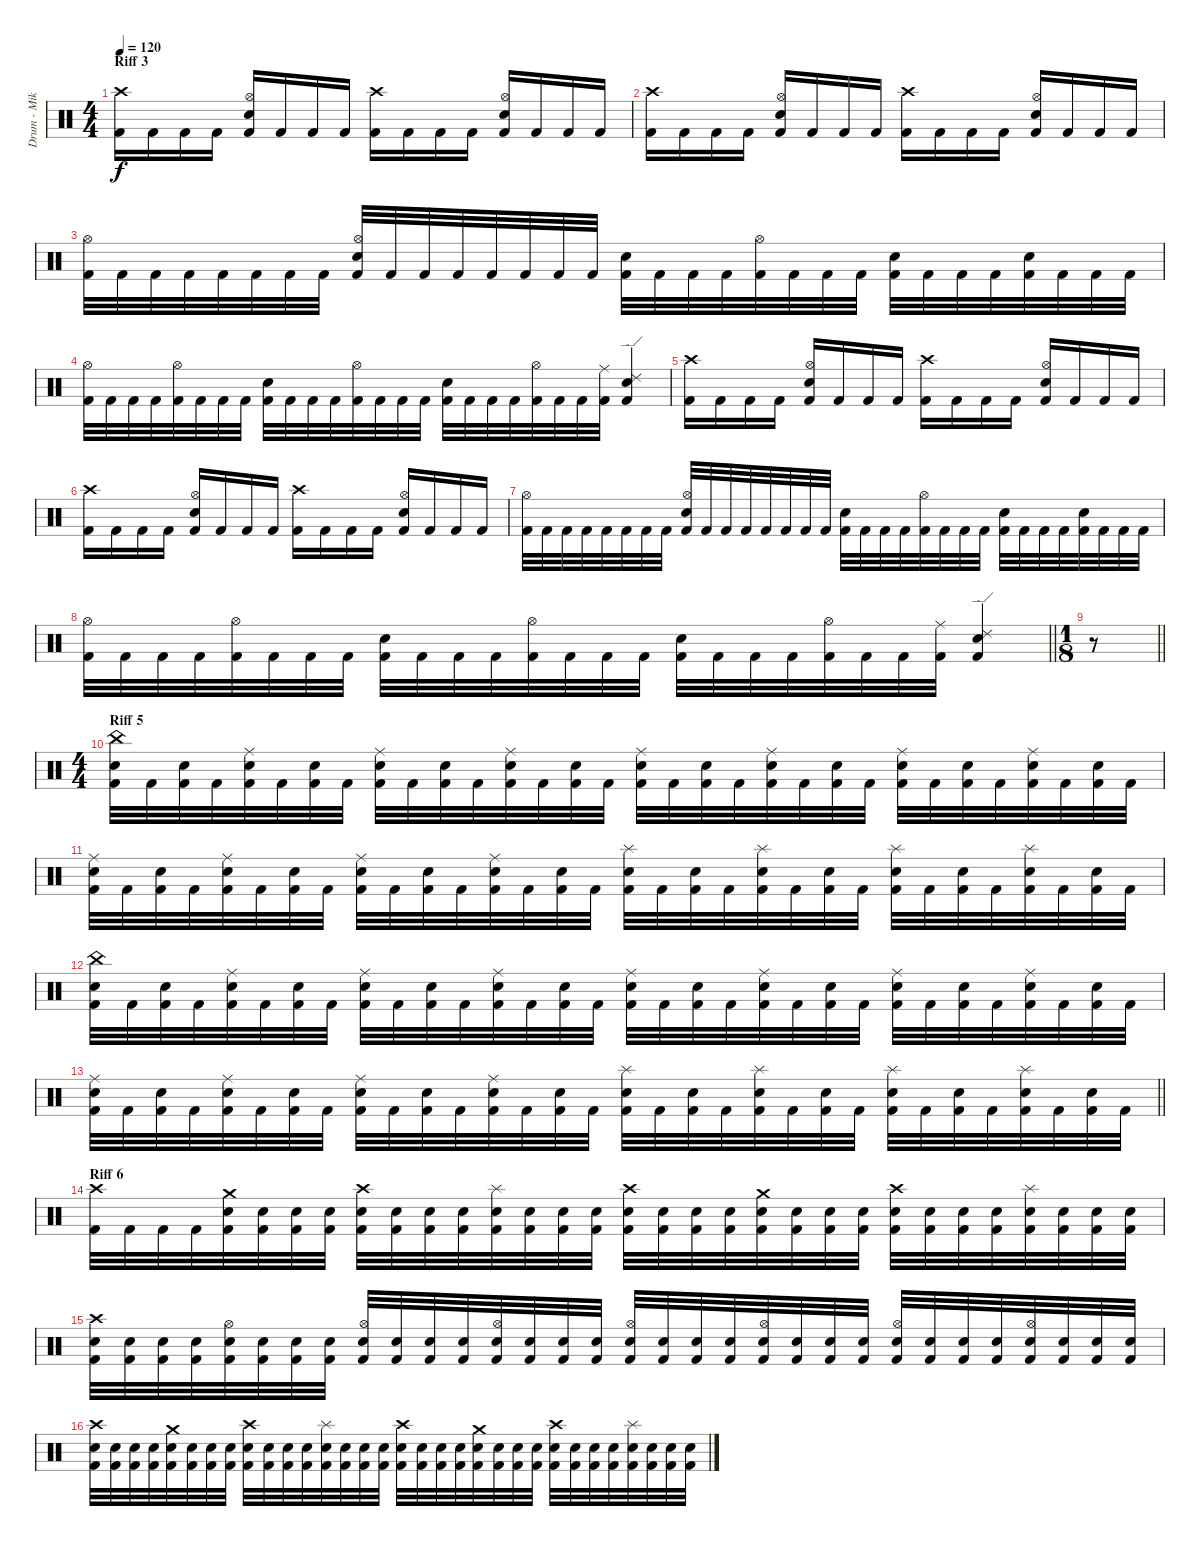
\track ("Drum - Mike Collins" "Drum - Mik") {instrument percussion}
\staff {score}
\articulation defaults
\ts (4 4)
\section ("" "Riff 3")
\tempo 120
\clef neutral
\ks c
("Crash high (hit)" "Kick (hit) 2").16{dy f} "Kick (hit) 2".16 "Kick (hit) 2".16 "Kick (hit) 2".16 ("Hi-Hat (open)" "Electric Snare (hit)" "Kick (hit) 2").16 "Kick (hit) 2".16 "Kick (hit) 2".16 "Kick (hit) 2".16 ("Crash high (hit)" "Kick (hit) 2").16 "Kick (hit) 2".16 "Kick (hit) 2".16 "Kick (hit) 2".16 ("Hi-Hat (open)" "Electric Snare (hit)" "Kick (hit) 2").16 "Kick (hit) 2".16 "Kick (hit) 2".16 "Kick (hit) 2".16 |
("Crash high (hit)" "Kick (hit) 2").16 "Kick (hit) 2".16 "Kick (hit) 2".16 "Kick (hit) 2".16 ("Hi-Hat (open)" "Electric Snare (hit)" "Kick (hit) 2").16 "Kick (hit) 2".16 "Kick (hit) 2".16 "Kick (hit) 2".16 ("Crash high (hit)" "Kick (hit) 2").16 "Kick (hit) 2".16 "Kick (hit) 2".16 "Kick (hit) 2".16 ("Hi-Hat (open)" "Electric Snare (hit)" "Kick (hit) 2").16 "Kick (hit) 2".16 "Kick (hit) 2".16 "Kick (hit) 2".16 |
("Hi-Hat (open)" "Kick (hit) 2").32 "Kick (hit) 2".32 "Kick (hit) 2".32 "Kick (hit) 2".32 "Kick (hit) 2".32 "Kick (hit) 2".32 "Kick (hit) 2".32 "Kick (hit) 2".32 ("Hi-Hat (open)" "Electric Snare (hit)" "Kick (hit) 2").32 "Kick (hit) 2".32 "Kick (hit) 2".32 "Kick (hit) 2".32 "Kick (hit) 2".32 "Kick (hit) 2".32 "Kick (hit) 2".32 "Kick (hit) 2".32 ("Electric Snare (hit)" "Kick (hit) 2").32 "Kick (hit) 2".32 "Kick (hit) 2".32 "Kick (hit) 2".32 ("Hi-Hat (open)" "Kick (hit) 2").32 "Kick (hit) 2".32 "Kick (hit) 2".32 "Kick (hit) 2".32 ("Electric Snare (hit)" "Kick (hit) 2").32{beam Down} "Kick (hit) 2".32{beam Down} "Kick (hit) 2".32{beam Down} "Kick (hit) 2".32{beam Down} ("Electric Snare (hit)" "Kick (hit) 2").32{beam Down} "Kick (hit) 2".32{beam Down} "Kick (hit) 2".32{beam Down} "Kick (hit) 2".32{beam Down} |
("Hi-Hat (open)" "Kick (hit) 2").32 "Kick (hit) 2".32 "Kick (hit) 2".32 "Kick (hit) 2".32 ("Hi-Hat (open)" "Kick (hit) 2").32 "Kick (hit) 2".32 "Kick (hit) 2".32 "Kick (hit) 2".32 ("Electric Snare (hit)" "Kick (hit) 2").32 "Kick (hit) 2".32 "Kick (hit) 2".32 "Kick (hit) 2".32 ("Hi-Hat (open)" "Kick (hit) 2").32 "Kick (hit) 2".32 "Kick (hit) 2".32 "Kick (hit) 2".32 ("Electric Snare (hit)" "Kick (hit) 2").32 "Kick (hit) 2".32 "Kick (hit) 2".32 "Kick (hit) 2".32 ("Hi-Hat (open)" "Kick (hit) 2").32 "Kick (hit) 2".32 "Kick (hit) 2".32 ("Ride (middle)" "Kick (hit) 2").32 ("Ride (edge) 2" "Electric Snare (hit)" "Kick (hit) 2").4 |
("Crash high (hit)" "Kick (hit) 2").16 "Kick (hit) 2".16 "Kick (hit) 2".16 "Kick (hit) 2".16 ("Hi-Hat (open)" "Electric Snare (hit)" "Kick (hit) 2").16 "Kick (hit) 2".16 "Kick (hit) 2".16 "Kick (hit) 2".16 ("Crash high (hit)" "Kick (hit) 2").16 "Kick (hit) 2".16 "Kick (hit) 2".16 "Kick (hit) 2".16 ("Hi-Hat (open)" "Electric Snare (hit)" "Kick (hit) 2").16 "Kick (hit) 2".16 "Kick (hit) 2".16 "Kick (hit) 2".16 |
("Crash high (hit)" "Kick (hit) 2").16 "Kick (hit) 2".16 "Kick (hit) 2".16 "Kick (hit) 2".16 ("Hi-Hat (open)" "Electric Snare (hit)" "Kick (hit) 2").16 "Kick (hit) 2".16 "Kick (hit) 2".16 "Kick (hit) 2".16 ("Crash high (hit)" "Kick (hit) 2").16 "Kick (hit) 2".16 "Kick (hit) 2".16 "Kick (hit) 2".16 ("Hi-Hat (open)" "Electric Snare (hit)" "Kick (hit) 2").16 "Kick (hit) 2".16 "Kick (hit) 2".16 "Kick (hit) 2".16 |
("Hi-Hat (open)" "Kick (hit) 2").32 "Kick (hit) 2".32 "Kick (hit) 2".32 "Kick (hit) 2".32 "Kick (hit) 2".32 "Kick (hit) 2".32 "Kick (hit) 2".32 "Kick (hit) 2".32 ("Hi-Hat (open)" "Electric Snare (hit)" "Kick (hit) 2").32 "Kick (hit) 2".32 "Kick (hit) 2".32 "Kick (hit) 2".32 "Kick (hit) 2".32 "Kick (hit) 2".32 "Kick (hit) 2".32 "Kick (hit) 2".32 ("Electric Snare (hit)" "Kick (hit) 2").32 "Kick (hit) 2".32 "Kick (hit) 2".32 "Kick (hit) 2".32 ("Hi-Hat (open)" "Kick (hit) 2").32 "Kick (hit) 2".32 "Kick (hit) 2".32 "Kick (hit) 2".32 ("Electric Snare (hit)" "Kick (hit) 2").32{beam Down} "Kick (hit) 2".32{beam Down} "Kick (hit) 2".32{beam Down} "Kick (hit) 2".32{beam Down} ("Electric Snare (hit)" "Kick (hit) 2").32{beam Down} "Kick (hit) 2".32{beam Down} "Kick (hit) 2".32{beam Down} "Kick (hit) 2".32{beam Down} |
\barLineRight lightlight
("Hi-Hat (open)" "Kick (hit) 2").32 "Kick (hit) 2".32 "Kick (hit) 2".32 "Kick (hit) 2".32 ("Hi-Hat (open)" "Kick (hit) 2").32 "Kick (hit) 2".32 "Kick (hit) 2".32 "Kick (hit) 2".32 ("Electric Snare (hit)" "Kick (hit) 2").32 "Kick (hit) 2".32 "Kick (hit) 2".32 "Kick (hit) 2".32 ("Hi-Hat (open)" "Kick (hit) 2").32 "Kick (hit) 2".32 "Kick (hit) 2".32 "Kick (hit) 2".32 ("Electric Snare (hit)" "Kick (hit) 2").32 "Kick (hit) 2".32 "Kick (hit) 2".32 "Kick (hit) 2".32 ("Hi-Hat (open)" "Kick (hit) 2").32 "Kick (hit) 2".32 "Kick (hit) 2".32 ("Ride (middle)" "Kick (hit) 2").32 ("Ride (edge) 2" "Electric Snare (hit)" "Kick (hit) 2").4 |
\ts (1 8)
\barLineRight lightlight
r.8 |
\ts (4 4)
\section ("" "Riff 5")
("China (hit)" "Electric Snare (hit)" "Kick (hit) 2").32 "Kick (hit) 2".32 ("Electric Snare (hit)" "Kick (hit) 2").32 "Kick (hit) 2".32 ("Ride (middle)" "Electric Snare (hit)" "Kick (hit) 2").32 "Kick (hit) 2".32 ("Electric Snare (hit)" "Kick (hit) 2").32 "Kick (hit) 2".32 ("Ride (middle)" "Electric Snare (hit)" "Kick (hit) 2").32 "Kick (hit) 2".32 ("Electric Snare (hit)" "Kick (hit) 2").32 "Kick (hit) 2".32 ("Ride (middle)" "Electric Snare (hit)" "Kick (hit) 2").32 "Kick (hit) 2".32 ("Electric Snare (hit)" "Kick (hit) 2").32 "Kick (hit) 2".32 ("Ride (middle)" "Electric Snare (hit)" "Kick (hit) 2").32 "Kick (hit) 2".32 ("Electric Snare (hit)" "Kick (hit) 2").32 "Kick (hit) 2".32 ("Ride (middle)" "Electric Snare (hit)" "Kick (hit) 2").32 "Kick (hit) 2".32 ("Electric Snare (hit)" "Kick (hit) 2").32 "Kick (hit) 2".32 ("Ride (middle)" "Electric Snare (hit)" "Kick (hit) 2").32 "Kick (hit) 2".32 ("Electric Snare (hit)" "Kick (hit) 2").32 "Kick (hit) 2".32 ("Ride (middle)" "Electric Snare (hit)" "Kick (hit) 2").32 "Kick (hit) 2".32 ("Electric Snare (hit)" "Kick (hit) 2").32 "Kick (hit) 2".32 |
("Ride (middle)" "Electric Snare (hit)" "Kick (hit) 2").32 "Kick (hit) 2".32 ("Electric Snare (hit)" "Kick (hit) 2").32 "Kick (hit) 2".32 ("Ride (middle)" "Electric Snare (hit)" "Kick (hit) 2").32 "Kick (hit) 2".32 ("Electric Snare (hit)" "Kick (hit) 2").32 "Kick (hit) 2".32 ("Ride (middle)" "Electric Snare (hit)" "Kick (hit) 2").32 "Kick (hit) 2".32 ("Electric Snare (hit)" "Kick (hit) 2").32 "Kick (hit) 2".32 ("Ride (middle)" "Electric Snare (hit)" "Kick (hit) 2").32 "Kick (hit) 2".32 ("Electric Snare (hit)" "Kick (hit) 2").32 "Kick (hit) 2".32 ("Splash (hit)" "Electric Snare (hit)" "Kick (hit) 2").32 "Kick (hit) 2".32 ("Electric Snare (hit)" "Kick (hit) 2").32 "Kick (hit) 2".32 ("Splash (hit)" "Electric Snare (hit)" "Kick (hit) 2").32 "Kick (hit) 2".32 ("Electric Snare (hit)" "Kick (hit) 2").32 "Kick (hit) 2".32 ("Splash (hit)" "Electric Snare (hit)" "Kick (hit) 2").32 "Kick (hit) 2".32 ("Electric Snare (hit)" "Kick (hit) 2").32 "Kick (hit) 2".32 ("Splash (hit)" "Electric Snare (hit)" "Kick (hit) 2").32 "Kick (hit) 2".32 ("Electric Snare (hit)" "Kick (hit) 2").32 "Kick (hit) 2".32 |
("China (hit)" "Electric Snare (hit)" "Kick (hit) 2").32 "Kick (hit) 2".32 ("Electric Snare (hit)" "Kick (hit) 2").32 "Kick (hit) 2".32 ("Ride (middle)" "Electric Snare (hit)" "Kick (hit) 2").32 "Kick (hit) 2".32 ("Electric Snare (hit)" "Kick (hit) 2").32 "Kick (hit) 2".32 ("Ride (middle)" "Electric Snare (hit)" "Kick (hit) 2").32 "Kick (hit) 2".32 ("Electric Snare (hit)" "Kick (hit) 2").32 "Kick (hit) 2".32 ("Ride (middle)" "Electric Snare (hit)" "Kick (hit) 2").32 "Kick (hit) 2".32 ("Electric Snare (hit)" "Kick (hit) 2").32 "Kick (hit) 2".32 ("Ride (middle)" "Electric Snare (hit)" "Kick (hit) 2").32 "Kick (hit) 2".32 ("Electric Snare (hit)" "Kick (hit) 2").32 "Kick (hit) 2".32 ("Ride (middle)" "Electric Snare (hit)" "Kick (hit) 2").32 "Kick (hit) 2".32 ("Electric Snare (hit)" "Kick (hit) 2").32 "Kick (hit) 2".32 ("Ride (middle)" "Electric Snare (hit)" "Kick (hit) 2").32 "Kick (hit) 2".32 ("Electric Snare (hit)" "Kick (hit) 2").32 "Kick (hit) 2".32 ("Ride (middle)" "Electric Snare (hit)" "Kick (hit) 2").32 "Kick (hit) 2".32 ("Electric Snare (hit)" "Kick (hit) 2").32 "Kick (hit) 2".32 |
\barLineRight lightlight
("Ride (middle)" "Electric Snare (hit)" "Kick (hit) 2").32 "Kick (hit) 2".32 ("Electric Snare (hit)" "Kick (hit) 2").32 "Kick (hit) 2".32 ("Ride (middle)" "Electric Snare (hit)" "Kick (hit) 2").32 "Kick (hit) 2".32 ("Electric Snare (hit)" "Kick (hit) 2").32 "Kick (hit) 2".32 ("Ride (middle)" "Electric Snare (hit)" "Kick (hit) 2").32 "Kick (hit) 2".32 ("Electric Snare (hit)" "Kick (hit) 2").32 "Kick (hit) 2".32 ("Ride (middle)" "Electric Snare (hit)" "Kick (hit) 2").32 "Kick (hit) 2".32 ("Electric Snare (hit)" "Kick (hit) 2").32 "Kick (hit) 2".32 ("Splash (hit)" "Electric Snare (hit)" "Kick (hit) 2").32 "Kick (hit) 2".32 ("Electric Snare (hit)" "Kick (hit) 2").32 "Kick (hit) 2".32 ("Splash (hit)" "Electric Snare (hit)" "Kick (hit) 2").32 "Kick (hit) 2".32 ("Electric Snare (hit)" "Kick (hit) 2").32 "Kick (hit) 2".32 ("Splash (hit)" "Electric Snare (hit)" "Kick (hit) 2").32 "Kick (hit) 2".32 ("Electric Snare (hit)" "Kick (hit) 2").32 "Kick (hit) 2".32 ("Splash (hit)" "Electric Snare (hit)" "Kick (hit) 2").32 "Kick (hit) 2".32 ("Electric Snare (hit)" "Kick (hit) 2").32 "Kick (hit) 2".32 |
\section ("" "Riff 6")
("Crash high (hit)" "Kick (hit) 2").32 "Kick (hit) 2".32 "Kick (hit) 2".32 "Kick (hit) 2".32 ("Crash medium (hit)" "Electric Snare (hit)" "Kick (hit) 2").32 ("Electric Snare (hit)" "Kick (hit) 2").32 ("Electric Snare (hit)" "Kick (hit) 2").32 ("Electric Snare (hit)" "Kick (hit) 2").32 ("Crash high (hit)" "Electric Snare (hit)" "Kick (hit) 2").32 ("Electric Snare (hit)" "Kick (hit) 2").32 ("Electric Snare (hit)" "Kick (hit) 2").32 ("Electric Snare (hit)" "Kick (hit) 2").32 ("Splash (hit)" "Electric Snare (hit)" "Kick (hit) 2").32 ("Electric Snare (hit)" "Kick (hit) 2").32 ("Electric Snare (hit)" "Kick (hit) 2").32 ("Electric Snare (hit)" "Kick (hit) 2").32 ("Crash high (hit)" "Electric Snare (hit)" "Kick (hit) 2").32 ("Electric Snare (hit)" "Kick (hit) 2").32 ("Electric Snare (hit)" "Kick (hit) 2").32 ("Electric Snare (hit)" "Kick (hit) 2").32 ("Crash medium (hit)" "Electric Snare (hit)" "Kick (hit) 2").32 ("Electric Snare (hit)" "Kick (hit) 2").32 ("Electric Snare (hit)" "Kick (hit) 2").32 ("Electric Snare (hit)" "Kick (hit) 2").32 ("Crash high (hit)" "Electric Snare (hit)" "Kick (hit) 2").32 ("Electric Snare (hit)" "Kick (hit) 2").32 ("Electric Snare (hit)" "Kick (hit) 2").32 ("Electric Snare (hit)" "Kick (hit) 2").32 ("Splash (hit)" "Electric Snare (hit)" "Kick (hit) 2").32 ("Electric Snare (hit)" "Kick (hit) 2").32 ("Electric Snare (hit)" "Kick (hit) 2").32 ("Electric Snare (hit)" "Kick (hit) 2").32 |
("Crash high (hit)" "Electric Snare (hit)" "Kick (hit) 2").32 ("Electric Snare (hit)" "Kick (hit) 2").32 ("Electric Snare (hit)" "Kick (hit) 2").32 ("Electric Snare (hit)" "Kick (hit) 2").32 ("Hi-Hat (open)" "Electric Snare (hit)" "Kick (hit) 2").32 ("Electric Snare (hit)" "Kick (hit) 2").32 ("Electric Snare (hit)" "Kick (hit) 2").32 ("Electric Snare (hit)" "Kick (hit) 2").32 ("Hi-Hat (open)" "Electric Snare (hit)" "Kick (hit) 2").32 ("Electric Snare (hit)" "Kick (hit) 2").32 ("Electric Snare (hit)" "Kick (hit) 2").32 ("Electric Snare (hit)" "Kick (hit) 2").32 ("Hi-Hat (open)" "Electric Snare (hit)" "Kick (hit) 2").32 ("Electric Snare (hit)" "Kick (hit) 2").32 ("Electric Snare (hit)" "Kick (hit) 2").32 ("Electric Snare (hit)" "Kick (hit) 2").32 ("Hi-Hat (open)" "Electric Snare (hit)" "Kick (hit) 2").32 ("Electric Snare (hit)" "Kick (hit) 2").32 ("Electric Snare (hit)" "Kick (hit) 2").32 ("Electric Snare (hit)" "Kick (hit) 2").32 ("Hi-Hat (open)" "Electric Snare (hit)" "Kick (hit) 2").32 ("Electric Snare (hit)" "Kick (hit) 2").32 ("Electric Snare (hit)" "Kick (hit) 2").32 ("Electric Snare (hit)" "Kick (hit) 2").32 ("Hi-Hat (open)" "Electric Snare (hit)" "Kick (hit) 2").32 ("Electric Snare (hit)" "Kick (hit) 2").32 ("Electric Snare (hit)" "Kick (hit) 2").32 ("Electric Snare (hit)" "Kick (hit) 2").32 ("Hi-Hat (open)" "Electric Snare (hit)" "Kick (hit) 2").32 ("Electric Snare (hit)" "Kick (hit) 2").32 ("Electric Snare (hit)" "Kick (hit) 2").32 ("Electric Snare (hit)" "Kick (hit) 2").32 |
("Crash high (hit)" "Electric Snare (hit)" "Kick (hit) 2").32 ("Electric Snare (hit)" "Kick (hit) 2").32 ("Electric Snare (hit)" "Kick (hit) 2").32 ("Electric Snare (hit)" "Kick (hit) 2").32 ("Crash medium (hit)" "Electric Snare (hit)" "Kick (hit) 2").32 ("Electric Snare (hit)" "Kick (hit) 2").32 ("Electric Snare (hit)" "Kick (hit) 2").32 ("Electric Snare (hit)" "Kick (hit) 2").32 ("Crash high (hit)" "Electric Snare (hit)" "Kick (hit) 2").32 ("Electric Snare (hit)" "Kick (hit) 2").32 ("Electric Snare (hit)" "Kick (hit) 2").32 ("Electric Snare (hit)" "Kick (hit) 2").32 ("Splash (hit)" "Electric Snare (hit)" "Kick (hit) 2").32 ("Electric Snare (hit)" "Kick (hit) 2").32 ("Electric Snare (hit)" "Kick (hit) 2").32 ("Electric Snare (hit)" "Kick (hit) 2").32 ("Crash high (hit)" "Electric Snare (hit)" "Kick (hit) 2").32 ("Electric Snare (hit)" "Kick (hit) 2").32 ("Electric Snare (hit)" "Kick (hit) 2").32 ("Electric Snare (hit)" "Kick (hit) 2").32 ("Crash medium (hit)" "Electric Snare (hit)" "Kick (hit) 2").32 ("Electric Snare (hit)" "Kick (hit) 2").32 ("Electric Snare (hit)" "Kick (hit) 2").32 ("Electric Snare (hit)" "Kick (hit) 2").32 ("Crash high (hit)" "Electric Snare (hit)" "Kick (hit) 2").32 ("Electric Snare (hit)" "Kick (hit) 2").32 ("Electric Snare (hit)" "Kick (hit) 2").32 ("Electric Snare (hit)" "Kick (hit) 2").32 ("Splash (hit)" "Electric Snare (hit)" "Kick (hit) 2").32 ("Electric Snare (hit)" "Kick (hit) 2").32 ("Electric Snare (hit)" "Kick (hit) 2").32 ("Electric Snare (hit)" "Kick (hit) 2").32
